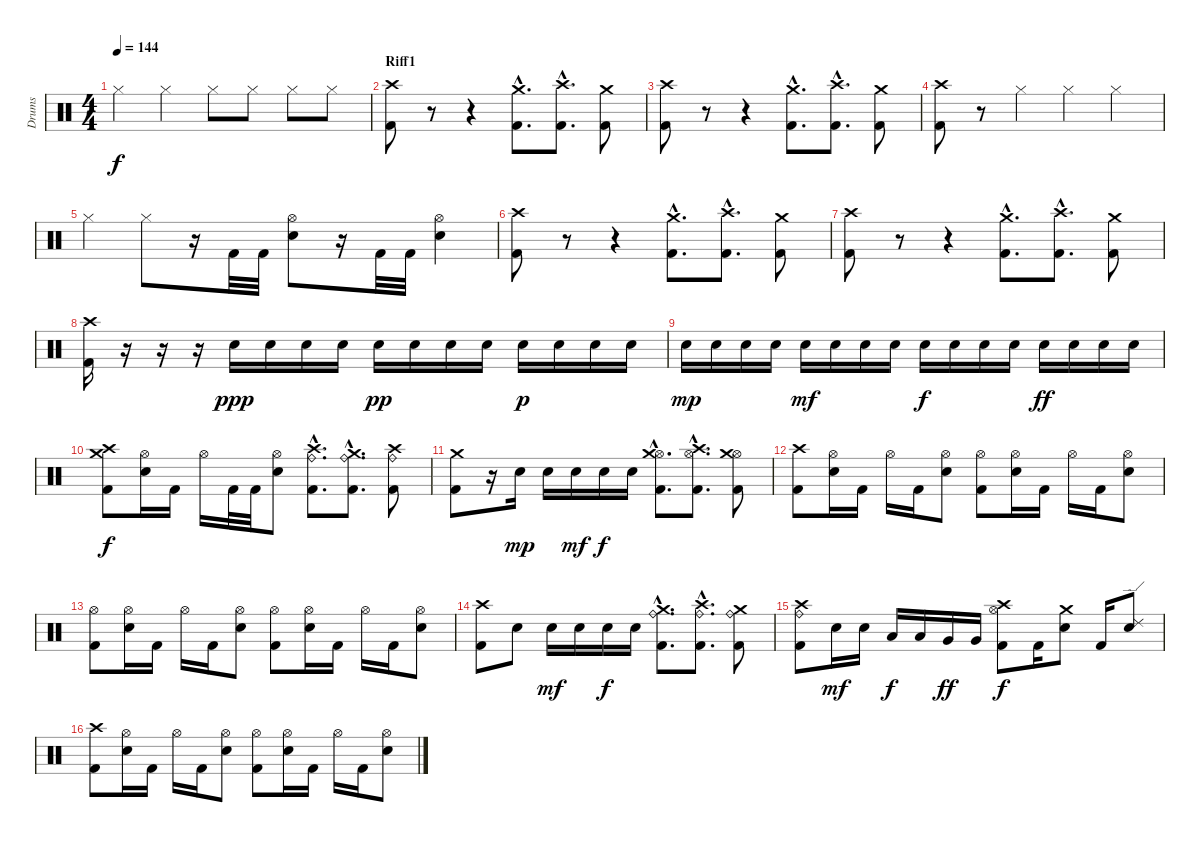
\track ("Drums" "Drums") {instrument percussion}
\staff {score}
\articulation defaults
\ts (4 4)
\tempo 144
\clef neutral
\ks c "Hi-Hat (closed)".4{dy f} "Hi-Hat (closed)".4 "Hi-Hat (closed)".8 "Hi-Hat (closed)".8 "Hi-Hat (closed)".8 "Hi-Hat (closed)".8
|
\section ("" "Riff1")
("Kick (hit) 2" "Crash high (hit)").8 r.8 r.4 ("Kick (hit) 2"{hac} "Crash medium (hit)"{hac}).8{d} ("Kick (hit) 2"{hac} "Crash high (hit)"{hac}).8{d} ("Kick (hit) 2" "Crash medium (hit)").8 |
("Kick (hit) 2" "Crash high (hit)").8 r.8 r.4 ("Kick (hit) 2"{hac} "Crash medium (hit)"{hac}).8{d} ("Kick (hit) 2"{hac} "Crash high (hit)"{hac}).8{d} ("Kick (hit) 2" "Crash medium (hit)").8 |
("Kick (hit) 2" "Crash high (hit)").8 r.8 "Hi-Hat (closed)".4 "Hi-Hat (closed)".4 "Hi-Hat (closed)".4 |
"Hi-Hat (closed)".4 "Hi-Hat (closed)".8 r.16 "Kick (hit) 2".32 "Kick (hit) 2".32 ("Electric Snare (hit)" "Hi-Hat (open)").8 r.16 "Kick (hit) 2".32 "Kick (hit) 2".32 ("Electric Snare (hit)" "Hi-Hat (open)").4 |
("Kick (hit) 2" "Crash high (hit)").8 r.8 r.4 ("Kick (hit) 2"{hac} "Crash medium (hit)"{hac}).8{d} ("Kick (hit) 2"{hac} "Crash high (hit)"{hac}).8{d} ("Kick (hit) 2" "Crash medium (hit)").8 |
("Kick (hit) 2" "Crash high (hit)").8 r.8 r.4 ("Kick (hit) 2"{hac} "Crash medium (hit)"{hac}).8{d} ("Kick (hit) 2"{hac} "Crash high (hit)"{hac}).8{d} ("Kick (hit) 2" "Crash medium (hit)").8 |
("Kick (hit) 2" "Crash high (hit)").16 r.16 r.16 r.16 "Electric Snare (hit)".16{dy ppp} "Electric Snare (hit)".16 "Electric Snare (hit)".16 "Electric Snare (hit)".16 "Electric Snare (hit)".16{dy pp} "Electric Snare (hit)".16 "Electric Snare (hit)".16 "Electric Snare (hit)".16 "Electric Snare (hit)".16{dy p} "Electric Snare (hit)".16 "Electric Snare (hit)".16 "Electric Snare (hit)".16 |
"Electric Snare (hit)".16{dy mp} "Electric Snare (hit)".16 "Electric Snare (hit)".16 "Electric Snare (hit)".16 "Electric Snare (hit)".16{dy mf} "Electric Snare (hit)".16 "Electric Snare (hit)".16 "Electric Snare (hit)".16 "Electric Snare (hit)".16{dy f} "Electric Snare (hit)".16 "Electric Snare (hit)".16 "Electric Snare (hit)".16 "Electric Snare (hit)".16{dy ff} "Electric Snare (hit)".16 "Electric Snare (hit)".16 "Electric Snare (hit)".16 |
("Kick (hit) 2" "Crash high (hit)" "Crash medium (hit)").8{dy f} ("Electric Snare (hit)" "Hi-Hat (open)").16 "Kick (hit) 2".16 "Hi-Hat (open)".16 "Kick (hit) 2".32 "Kick (hit) 2".32 ("Electric Snare (hit)" "Hi-Hat (open)").8 ("Kick (hit) 2"{hac} "Crash high (hit)"{hac} "Ride (bell)"{hac}).8{d} ("Kick (hit) 2"{hac} "Crash medium (hit)"{hac} "Ride (bell)"{hac}).8{d} ("Kick (hit) 2" "Crash high (hit)" "Ride (bell)").8 |
("Kick (hit) 2" "Crash medium (hit)").8 r.16 "Electric Snare (hit)".16{dy mp} "Electric Snare (hit)".16 "Electric Snare (hit)".16{dy mf} "Electric Snare (hit)".16{dy f} "Electric Snare (hit)".16 ("Kick (hit) 2"{hac} "Hi-Hat (open)"{hac} "Crash medium (hit)"{hac}).8{d} ("Kick (hit) 2"{hac} "Hi-Hat (open)"{hac} "Crash high (hit)"{hac}).8{d} ("Kick (hit) 2" "Hi-Hat (open)" "Crash medium (hit)").8 |
("Kick (hit) 2" "Crash high (hit)").8 ("Electric Snare (hit)" "Hi-Hat (open)").16 "Kick (hit) 2".16 "Hi-Hat (open)".16 "Kick (hit) 2".16 ("Electric Snare (hit)" "Hi-Hat (open)").8 ("Kick (hit) 2" "Hi-Hat (open)").8 ("Electric Snare (hit)" "Hi-Hat (open)").16 "Kick (hit) 2".16 "Hi-Hat (open)".16 "Kick (hit) 2".16 ("Electric Snare (hit)" "Hi-Hat (open)").8 |
("Kick (hit) 2" "Hi-Hat (open)").8 ("Electric Snare (hit)" "Hi-Hat (open)").16 "Kick (hit) 2".16 "Hi-Hat (open)".16 "Kick (hit) 2".16 ("Electric Snare (hit)" "Hi-Hat (open)").8 ("Kick (hit) 2" "Hi-Hat (open)").8 ("Electric Snare (hit)" "Hi-Hat (open)").16 "Kick (hit) 2".16 "Hi-Hat (open)".16 "Kick (hit) 2".16 ("Electric Snare (hit)" "Hi-Hat (open)").8 |
("Kick (hit) 2" "Crash high (hit)").8 "Electric Snare (hit)".8 "Electric Snare (hit)".16{dy mf} "Electric Snare (hit)".16 "Electric Snare (hit)".16{dy f} "Electric Snare (hit)".16 ("Kick (hit) 2"{hac} "Ride (bell)"{hac} "Crash medium (hit)"{hac}).8{d} ("Kick (hit) 2"{hac} "Ride (bell)"{hac} "Crash high (hit)"{hac}).8{d} ("Kick (hit) 2" "Ride (bell)" "Crash medium (hit)").8 |
("Kick (hit) 2" "Ride (bell)" "Crash high (hit)").8 "Electric Snare (hit)".16{dy mf} "Electric Snare (hit)".16 "Low Tom (hit)".16{dy f} "Low Tom (hit)".16 "Very Low Tom (hit)".16{dy ff} "Very Low Tom (hit)".16 ("Kick (hit) 2" "Hi-Hat (open)" "Crash high (hit)").8{dy f} "Kick (hit) 2".16 ("Electric Snare (hit)" "Crash medium (hit)").8 "Kick (hit) 2".16 ("Electric Snare (hit)" "Ride (edge) 2").8 |
("Kick (hit) 2" "Crash high (hit)").8 ("Electric Snare (hit)" "Hi-Hat (open)").16 "Kick (hit) 2".16 "Hi-Hat (open)".16 "Kick (hit) 2".16 ("Electric Snare (hit)" "Hi-Hat (open)").8 ("Kick (hit) 2" "Hi-Hat (open)").8 ("Electric Snare (hit)" "Hi-Hat (open)").16 "Kick (hit) 2".16 "Hi-Hat (open)".16 "Kick (hit) 2".16 ("Electric Snare (hit)" "Hi-Hat (open)").8
